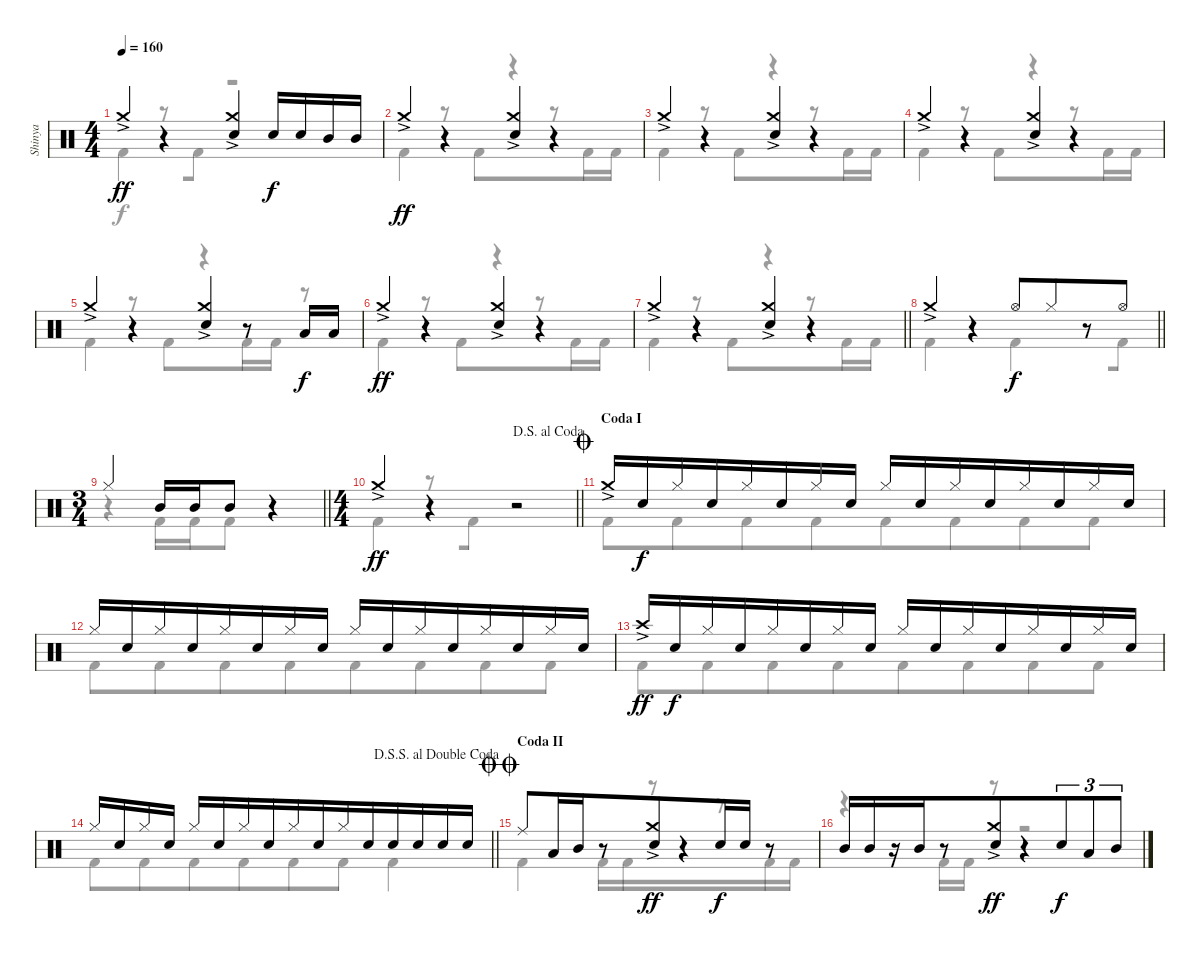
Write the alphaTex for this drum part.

\track ("Shinya" "Shinya") {instrument percussion}
\staff {score}
\articulation defaults
\voice
\ts (4 4)
\tempo 160
\clef neutral
\ks c "Crash medium (hit)"{ac}.4{dy ff beam merge}
r.4{beam merge} ("Crash medium (hit)"{ac} "Electric Snare (hit)").4{beam merge} "Electric Snare (hit)".16{dy f} "Electric Snare (hit)".16 "Mid Tom (hit)".16 "Mid Tom (hit)".16 |
"Crash medium (hit)"{ac}.4{dy ff beam merge} r.4{beam merge} ("Crash medium (hit)"{ac} "Electric Snare (hit)").4{beam merge} r.4 |
"Crash medium (hit)"{ac}.4{beam merge} r.4{beam merge} ("Crash medium (hit)"{ac} "Electric Snare (hit)").4{beam merge} r.4 |
"Crash medium (hit)"{ac}.4{beam merge} r.4{beam merge} ("Crash medium (hit)"{ac} "Electric Snare (hit)").4{beam merge} r.4 |
"Crash medium (hit)"{ac}.4{beam merge} r.4{beam merge} ("Crash medium (hit)"{ac} "Electric Snare (hit)").4 r.8 "Low Tom (hit)".16{dy f beam merge} "Low Tom (hit)".16 |
"Crash medium (hit)"{ac}.4{dy ff beam merge} r.4{beam merge} ("Crash medium (hit)"{ac} "Electric Snare (hit)").4{beam merge} r.4 |
\barLineRight lightlight "Crash medium (hit)"{ac}.4{beam merge}
r.4{beam merge} ("Crash medium (hit)"{ac} "Electric Snare (hit)").4{beam merge} r.4 |
\barLineRight lightlight "Crash medium (hit)"{ac}.4{beam merge}
r.4{beam merge} "Hi-Hat (open)".8{dy f} "Hi-Hat (closed)".8{beam merge} r.8 "Hi-Hat (open)".8 |
\ts (3 4)
\barLineRight lightlight "Hi-Hat (closed)".4 "Mid Tom (hit)".16{beam merge} "Mid Tom (hit)".16{beam merge} "Mid Tom (hit)".8{beam merge}
r.4 |
\ts (4 4)
\jump dalsegnoalcoda
\barLineRight lightlight "Crash medium (hit)"{ac}.4{dy ff beam merge}
r.4{beam merge} r.2 |
\section ("" "Coda I")
\jump coda "Crash medium (hit)"{ac}.16{beam merge} "Electric Snare (hit)".16{dy f beam merge} "Hi-Hat (closed)".16{beam merge} "Electric Snare (hit)".16{beam merge} "Hi-Hat (closed)".16 "Electric Snare (hit)".16{beam merge} "Hi-Hat (closed)".16 "Electric Snare (hit)".16 "Hi-Hat (closed)".16{beam merge} "Electric Snare (hit)".16{beam merge} "Hi-Hat (closed)".16{beam merge} "Electric Snare (hit)".16{beam merge} "Hi-Hat (closed)".16 "Electric Snare (hit)".16{beam merge} "Hi-Hat (closed)".16 "Electric Snare (hit)".16
|
"Hi-Hat (closed)".16{beam merge} "Electric Snare (hit)".16{beam merge} "Hi-Hat (closed)".16{beam merge} "Electric Snare (hit)".16{beam merge} "Hi-Hat (closed)".16 "Electric Snare (hit)".16{beam merge} "Hi-Hat (closed)".16 "Electric Snare (hit)".16 "Hi-Hat (closed)".16{beam merge} "Electric Snare (hit)".16{beam merge} "Hi-Hat (closed)".16{beam merge} "Electric Snare (hit)".16{beam merge} "Hi-Hat (closed)".16 "Electric Snare (hit)".16{beam merge} "Hi-Hat (closed)".16 "Electric Snare (hit)".16 |
"Crash high (hit)"{ac}.16{dy ff beam merge} "Electric Snare (hit)".16{dy f beam merge} "Hi-Hat (closed)".16{beam merge} "Electric Snare (hit)".16{beam merge} "Hi-Hat (closed)".16 "Electric Snare (hit)".16{beam merge} "Hi-Hat (closed)".16 "Electric Snare (hit)".16 "Hi-Hat (closed)".16{beam merge} "Electric Snare (hit)".16{beam merge} "Hi-Hat (closed)".16{beam merge} "Electric Snare (hit)".16{beam merge} "Hi-Hat (closed)".16 "Electric Snare (hit)".16{beam merge} "Hi-Hat (closed)".16 "Electric Snare (hit)".16 |
\jump dalsegnosegnoaldoublecoda
\barLineRight lightlight "Hi-Hat (closed)".16 "Electric Snare (hit)".16{beam merge} "Hi-Hat (closed)".16 "Electric Snare (hit)".16 "Hi-Hat (closed)".16{beam merge} "Electric Snare (hit)".16{beam merge} "Hi-Hat (closed)".16{beam merge} "Electric Snare (hit)".16{beam merge} "Hi-Hat (closed)".16 "Electric Snare (hit)".16{beam merge} "Hi-Hat (closed)".16 "Electric Snare (hit)".16{beam merge} "Electric Snare (hit)".16 "Electric Snare (hit)".16 "Electric Snare (hit)".16{beam merge} "Electric Snare (hit)".16
|
\section ("" "Coda II")
\jump doublecoda "Ride (middle)".8 "Low Tom (hit)".16{beam merge} "Mid Tom (hit)".16{beam merge}
r.8{beam merge} ("Crash medium (hit)"{ac} "Electric Snare (hit)").8{dy ff beam merge} r.4 "Electric Snare (hit)".16{dy f beam merge} "Electric Snare (hit)".16 r.8 |
"Mid Tom (hit)".16 "Mid Tom (hit)".16 r.16{beam merge} "Mid Tom (hit)".16{beam merge} r.8{beam merge} ("Crash medium (hit)"{ac} "Electric Snare (hit)").8{dy ff beam merge} r.4 "Electric Snare (hit)".8{tu (3 2) dy f beam merge} "Low Tom (hit)".8{tu (3 2)} "Mid Tom (hit)".8{tu (3 2)}
\voice
\clef neutral
\ottava regular
\simile none
\ks c "Kick (hit) 2".4{dy f beam merge}
r.8{beam merge} "Kick (hit) 2".8{beam merge} r.2 |
"Kick (hit) 2".4{beam merge} r.8{beam merge} "Kick (hit) 2".8{beam merge} r.4{beam merge} r.8 "Kick (hit) 2".16{beam merge} "Kick (hit) 2".16 |
"Kick (hit) 2".4{beam merge} r.8{beam merge} "Kick (hit) 2".8{beam merge} r.4{beam merge} r.8 "Kick (hit) 2".16{beam merge} "Kick (hit) 2".16 |
"Kick (hit) 2".4{beam merge} r.8{beam merge} "Kick (hit) 2".8{beam merge} r.4{beam merge} r.8 "Kick (hit) 2".16{beam merge} "Kick (hit) 2".16 |
"Kick (hit) 2".4{beam merge} r.8{beam merge} "Kick (hit) 2".8{beam merge} r.4{beam merge} "Kick (hit) 2".16 "Kick (hit) 2".16 r.8 |
"Kick (hit) 2".4{beam merge} r.8{beam merge} "Kick (hit) 2".8{beam merge} r.4{beam merge} r.8 "Kick (hit) 2".16{beam merge} "Kick (hit) 2".16 |
\barLineRight lightlight "Kick (hit) 2".4{beam merge}
r.8{beam merge} "Kick (hit) 2".8{beam merge} r.4{beam merge} r.8 "Kick (hit) 2".16{beam merge} "Kick (hit) 2".16 |
\barLineRight lightlight "Kick (hit) 2".4{beam merge}
r.4{beam merge} "Kick (hit) 2".4{beam merge} r.8{beam merge} "Kick (hit) 2".8 |
\barLineRight lightlight
r.4{beam merge} "Kick (hit) 2".16{beam merge} "Kick (hit) 2".16{beam merge} "Kick (hit) 2".8{beam merge} r.4 |
\barLineRight lightlight "Kick (hit) 2".4{beam merge}
r.8{beam merge} "Kick (hit) 2".8{beam merge} r.2 |
"Kick (hit) 2".8{beam merge} "Kick (hit) 2".8{beam merge} "Kick (hit) 2".8{beam merge} "Kick (hit) 2".8{beam merge} "Kick (hit) 2".8 "Kick (hit) 2".8{beam merge} "Kick (hit) 2".8 "Kick (hit) 2".8 |
"Kick (hit) 2".8{beam merge} "Kick (hit) 2".8{beam merge} "Kick (hit) 2".8{beam merge} "Kick (hit) 2".8{beam merge} "Kick (hit) 2".8 "Kick (hit) 2".8{beam merge} "Kick (hit) 2".8 "Kick (hit) 2".8 |
"Kick (hit) 2".8{beam merge} "Kick (hit) 2".8{beam merge} "Kick (hit) 2".8{beam merge} "Kick (hit) 2".8{beam merge} "Kick (hit) 2".8 "Kick (hit) 2".8{beam merge} "Kick (hit) 2".8 "Kick (hit) 2".8 |
\barLineRight lightlight "Kick (hit) 2".8{beam merge} "Kick (hit) 2".8{beam merge} "Kick (hit) 2".8{beam merge} "Kick (hit) 2".8{beam merge} "Kick (hit) 2".8 "Kick (hit) 2".8 "Kick (hit) 2".4
|
"Kick (hit) 2".4{beam merge} "Kick (hit) 2".16{beam merge} "Kick (hit) 2".16{beam merge} r.8{beam merge} r.4 r.8{beam merge} "Kick (hit) 2".16 "Kick (hit) 2".16 |
r.4{beam merge} "Kick (hit) 2".16{beam merge} "Kick (hit) 2".16{beam merge} r.8{beam merge} r.2
